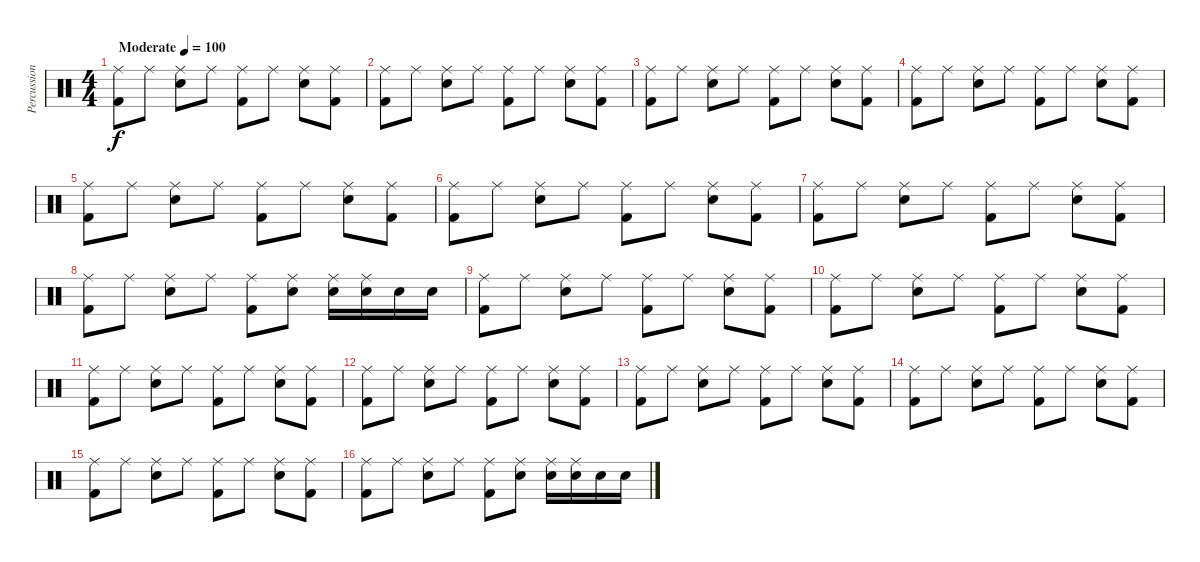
\track ("Percussion" "Percussion") {instrument percussion}
\staff {score}
\articulation defaults
\ts (4 4)
\tempo (100 "Moderate")
\clef neutral
\ks c
("Kick (hit) 2" "Ride (middle)").8{dy f} "Ride (middle)".8 ("Snare (hit) 2" "Ride (middle)").8 "Ride (middle)".8 ("Kick (hit) 2" "Ride (middle)").8 "Ride (middle)".8 ("Snare (hit) 2" "Ride (middle)").8 ("Kick (hit) 2" "Ride (middle)").8 |
("Kick (hit) 2" "Ride (middle)").8 "Ride (middle)".8 ("Snare (hit) 2" "Ride (middle)").8 "Ride (middle)".8 ("Kick (hit) 2" "Ride (middle)").8 "Ride (middle)".8 ("Snare (hit) 2" "Ride (middle)").8 ("Kick (hit) 2" "Ride (middle)").8 |
("Kick (hit) 2" "Ride (middle)").8 "Ride (middle)".8 ("Snare (hit) 2" "Ride (middle)").8 "Ride (middle)".8 ("Kick (hit) 2" "Ride (middle)").8 "Ride (middle)".8 ("Snare (hit) 2" "Ride (middle)").8 ("Kick (hit) 2" "Ride (middle)").8 |
("Kick (hit) 2" "Ride (middle)").8 "Ride (middle)".8 ("Snare (hit) 2" "Ride (middle)").8 "Ride (middle)".8 ("Kick (hit) 2" "Ride (middle)").8 "Ride (middle)".8 ("Snare (hit) 2" "Ride (middle)").8 ("Kick (hit) 2" "Ride (middle)").8 |
("Kick (hit) 2" "Ride (middle)").8 "Ride (middle)".8 ("Snare (hit) 2" "Ride (middle)").8 "Ride (middle)".8 ("Kick (hit) 2" "Ride (middle)").8 "Ride (middle)".8 ("Snare (hit) 2" "Ride (middle)").8 ("Kick (hit) 2" "Ride (middle)").8 |
("Kick (hit) 2" "Ride (middle)").8 "Ride (middle)".8 ("Snare (hit) 2" "Ride (middle)").8 "Ride (middle)".8 ("Kick (hit) 2" "Ride (middle)").8 "Ride (middle)".8 ("Snare (hit) 2" "Ride (middle)").8 ("Kick (hit) 2" "Ride (middle)").8 |
("Kick (hit) 2" "Ride (middle)").8 "Ride (middle)".8 ("Snare (hit) 2" "Ride (middle)").8 "Ride (middle)".8 ("Kick (hit) 2" "Ride (middle)").8 "Ride (middle)".8 ("Snare (hit) 2" "Ride (middle)").8 ("Kick (hit) 2" "Ride (middle)").8 |
("Kick (hit) 2" "Ride (middle)").8 "Ride (middle)".8 ("Snare (hit) 2" "Ride (middle)").8 "Ride (middle)".8 ("Kick (hit) 2" "Ride (middle)").8 ("Snare (hit) 2" "Ride (middle)").8 ("Snare (hit) 2" "Ride (middle)").16 ("Snare (hit) 2" "Ride (middle)").16 "Snare (hit) 2".16 "Snare (hit) 2".16 |
("Kick (hit) 2" "Ride (middle)").8 "Ride (middle)".8 ("Snare (hit) 2" "Ride (middle)").8 "Ride (middle)".8 ("Kick (hit) 2" "Ride (middle)").8 "Ride (middle)".8 ("Snare (hit) 2" "Ride (middle)").8 ("Kick (hit) 2" "Ride (middle)").8 |
("Kick (hit) 2" "Ride (middle)").8 "Ride (middle)".8 ("Snare (hit) 2" "Ride (middle)").8 "Ride (middle)".8 ("Kick (hit) 2" "Ride (middle)").8 "Ride (middle)".8 ("Snare (hit) 2" "Ride (middle)").8 ("Kick (hit) 2" "Ride (middle)").8 |
("Kick (hit) 2" "Ride (middle)").8 "Ride (middle)".8 ("Snare (hit) 2" "Ride (middle)").8 "Ride (middle)".8 ("Kick (hit) 2" "Ride (middle)").8 "Ride (middle)".8 ("Snare (hit) 2" "Ride (middle)").8 ("Kick (hit) 2" "Ride (middle)").8 |
("Kick (hit) 2" "Ride (middle)").8 "Ride (middle)".8 ("Snare (hit) 2" "Ride (middle)").8 "Ride (middle)".8 ("Kick (hit) 2" "Ride (middle)").8 "Ride (middle)".8 ("Snare (hit) 2" "Ride (middle)").8 ("Kick (hit) 2" "Ride (middle)").8 |
("Kick (hit) 2" "Ride (middle)").8 "Ride (middle)".8 ("Snare (hit) 2" "Ride (middle)").8 "Ride (middle)".8 ("Kick (hit) 2" "Ride (middle)").8 "Ride (middle)".8 ("Snare (hit) 2" "Ride (middle)").8 ("Kick (hit) 2" "Ride (middle)").8 |
("Kick (hit) 2" "Ride (middle)").8 "Ride (middle)".8 ("Snare (hit) 2" "Ride (middle)").8 "Ride (middle)".8 ("Kick (hit) 2" "Ride (middle)").8 "Ride (middle)".8 ("Snare (hit) 2" "Ride (middle)").8 ("Kick (hit) 2" "Ride (middle)").8 |
("Kick (hit) 2" "Ride (middle)").8 "Ride (middle)".8 ("Snare (hit) 2" "Ride (middle)").8 "Ride (middle)".8 ("Kick (hit) 2" "Ride (middle)").8 "Ride (middle)".8 ("Snare (hit) 2" "Ride (middle)").8 ("Kick (hit) 2" "Ride (middle)").8 |
("Kick (hit) 2" "Ride (middle)").8 "Ride (middle)".8 ("Snare (hit) 2" "Ride (middle)").8 "Ride (middle)".8 ("Kick (hit) 2" "Ride (middle)").8 ("Snare (hit) 2" "Ride (middle)").8 ("Snare (hit) 2" "Ride (middle)").16 ("Snare (hit) 2" "Ride (middle)").16 "Snare (hit) 2".16 "Snare (hit) 2".16
